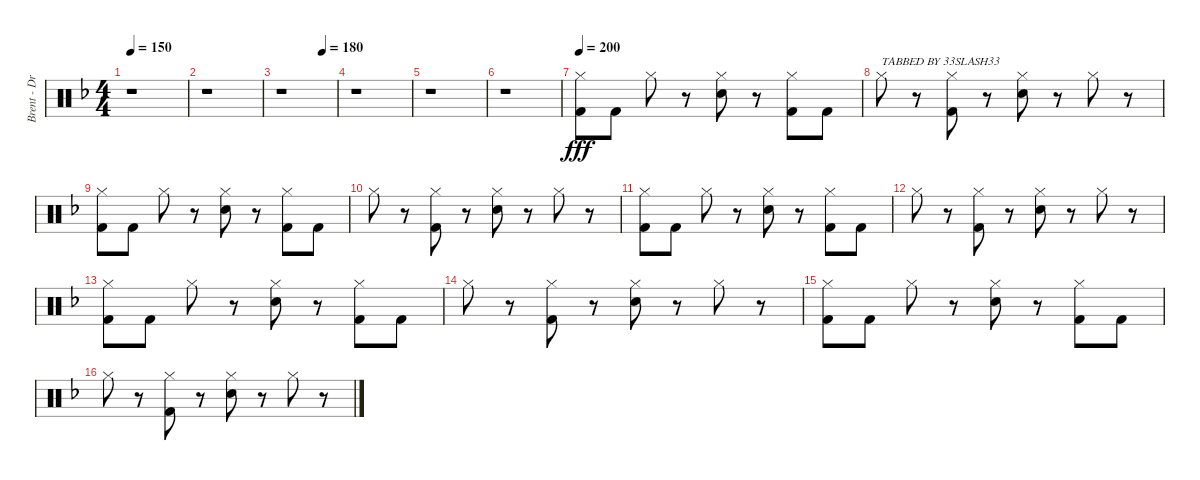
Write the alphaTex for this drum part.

\track ("Brent - Drums" "Brent - Dr") {instrument percussion}
\staff {score}
\articulation defaults
\ts (4 4)
\tempo 150
\clef neutral
\ks dminor
r.1{dy fff} |
r.1 |
\tempo (180 0.75)
r.1 |
r.1 |
r.1 |
r.1 |
\tempo 200
("Hi-Hat (closed)" "Kick (hit) 2").8 "Kick (hit) 2".8 "Hi-Hat (closed)".8 r.8 ("Hi-Hat (closed)" "Snare (hit) 2").8 r.8 ("Hi-Hat (closed)" "Kick (hit) 2").8 "Kick (hit) 2".8 |
"Hi-Hat (closed)".8{txt "TABBED BY 33SLASH33"} r.8 ("Hi-Hat (closed)" "Kick (hit) 2").8 r.8 ("Hi-Hat (closed)" "Snare (hit) 2").8 r.8 "Hi-Hat (closed)".8 r.8 |
("Hi-Hat (closed)" "Kick (hit) 2").8 "Kick (hit) 2".8 "Hi-Hat (closed)".8 r.8 ("Hi-Hat (closed)" "Snare (hit) 2").8 r.8 ("Hi-Hat (closed)" "Kick (hit) 2").8 "Kick (hit) 2".8 |
"Hi-Hat (closed)".8 r.8 ("Hi-Hat (closed)" "Kick (hit) 2").8 r.8 ("Hi-Hat (closed)" "Snare (hit) 2").8 r.8 "Hi-Hat (closed)".8 r.8 |
("Hi-Hat (closed)" "Kick (hit) 2").8 "Kick (hit) 2".8 "Hi-Hat (closed)".8 r.8 ("Hi-Hat (closed)" "Snare (hit) 2").8 r.8 ("Hi-Hat (closed)" "Kick (hit) 2").8 "Kick (hit) 2".8 |
"Hi-Hat (closed)".8 r.8 ("Hi-Hat (closed)" "Kick (hit) 2").8 r.8 ("Hi-Hat (closed)" "Snare (hit) 2").8 r.8 "Hi-Hat (closed)".8 r.8 |
("Hi-Hat (closed)" "Kick (hit) 2").8 "Kick (hit) 2".8 "Hi-Hat (closed)".8 r.8 ("Hi-Hat (closed)" "Snare (hit) 2").8 r.8 ("Hi-Hat (closed)" "Kick (hit) 2").8 "Kick (hit) 2".8 |
"Hi-Hat (closed)".8 r.8 ("Hi-Hat (closed)" "Kick (hit) 2").8 r.8 ("Hi-Hat (closed)" "Snare (hit) 2").8 r.8 "Hi-Hat (closed)".8 r.8 |
("Hi-Hat (closed)" "Kick (hit) 2").8 "Kick (hit) 2".8 "Hi-Hat (closed)".8 r.8 ("Hi-Hat (closed)" "Snare (hit) 2").8 r.8 ("Hi-Hat (closed)" "Kick (hit) 2").8 "Kick (hit) 2".8 |
"Hi-Hat (closed)".8 r.8 ("Hi-Hat (closed)" "Kick (hit) 2").8 r.8 ("Hi-Hat (closed)" "Snare (hit) 2").8 r.8 "Hi-Hat (closed)".8 r.8
